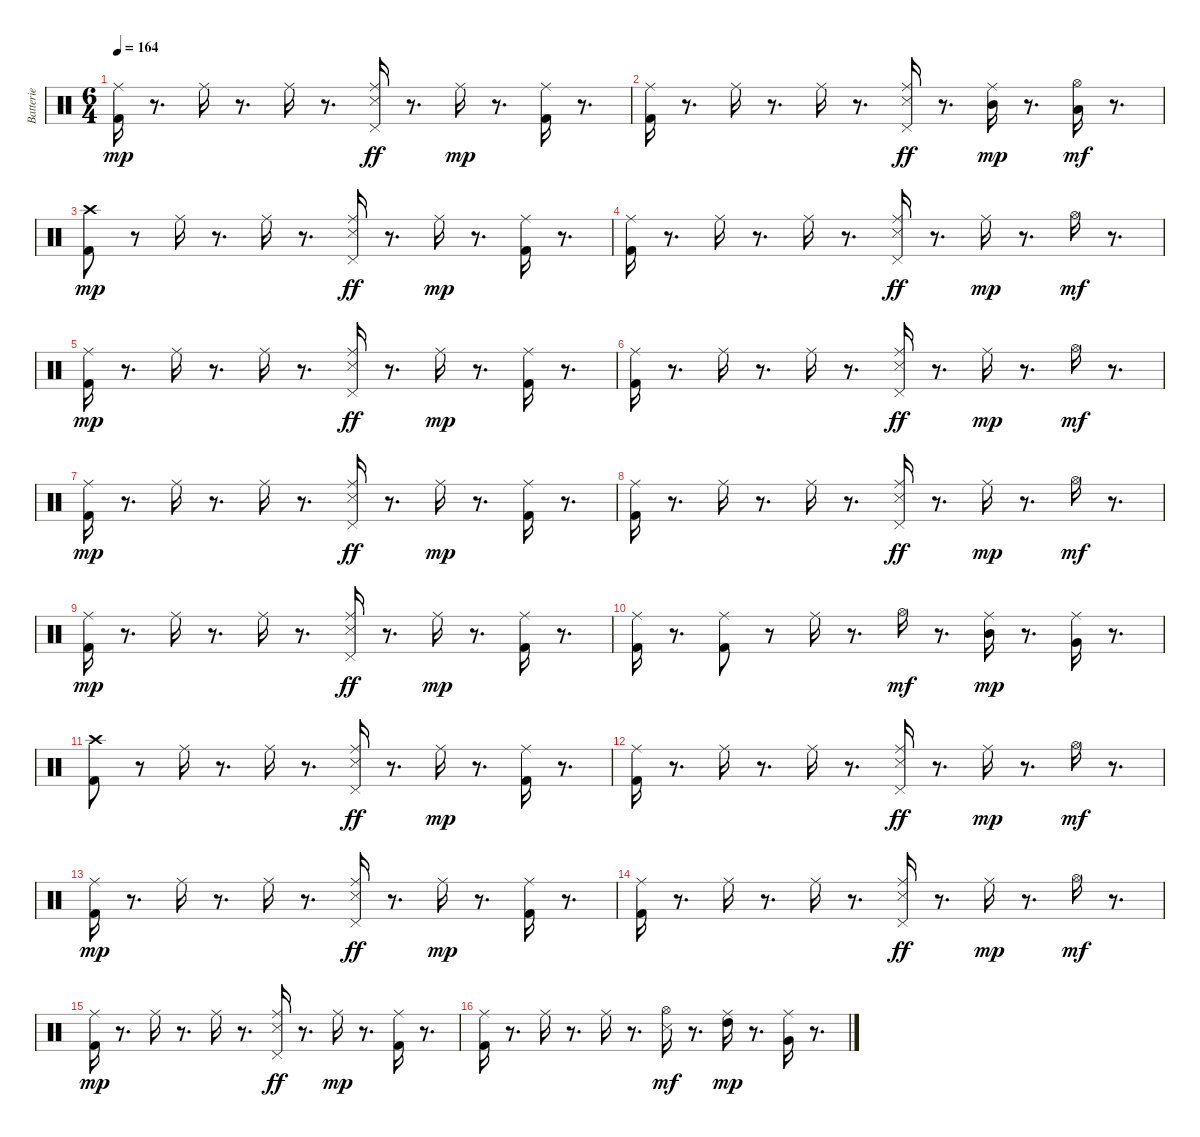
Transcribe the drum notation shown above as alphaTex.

\track ("Batterie" "Batterie") {instrument percussion}
\staff {score}
\articulation defaults
\ts (6 4)
\tempo 164
\clef neutral
\ks c
("Kick (hit) 2" "Ride (middle)").16{dy mp} r.8{d} "Ride (middle)".16 r.8{d} "Ride (middle)".16 r.8{d} ("Snare (side stick) 3" "Ride (middle)" "Pedal Hi-Hat (hit)").16{dy ff} r.8{d} "Ride (middle)".16{dy mp} r.8{d} ("Kick (hit) 2" "Ride (middle)").16 r.8{d} |
("Kick (hit) 2" "Ride (middle)").16 r.8{d} "Ride (middle)".16 r.8{d} "Ride (middle)".16 r.8{d} ("Snare (side stick) 3" "Ride (middle)" "Pedal Hi-Hat (hit)").16{dy ff} r.8{d} ("Ride (middle)" "Mid Tom (hit)").16{dy mp} r.8{d} ("Hi-Hat (open)" "Low Floor Tom (hit)").16{dy mf} r.8{d} |
("Kick (hit) 2" "Crash high (hit)").8{dy mp} r.8 "Ride (middle)".16 r.8{d} "Ride (middle)".16 r.8{d} ("Snare (side stick) 3" "Ride (middle)" "Pedal Hi-Hat (hit)").16{dy ff} r.8{d} "Ride (middle)".16{dy mp} r.8{d} ("Kick (hit) 2" "Ride (middle)").16 r.8{d} |
("Kick (hit) 2" "Ride (middle)").16 r.8{d} "Ride (middle)".16 r.8{d} "Ride (middle)".16 r.8{d} ("Snare (side stick) 3" "Ride (middle)" "Pedal Hi-Hat (hit)").16{dy ff} r.8{d} "Ride (middle)".16{dy mp} r.8{d} "Hi-Hat (open)".16{dy mf} r.8{d} |
("Kick (hit) 2" "Ride (middle)").16{dy mp} r.8{d} "Ride (middle)".16 r.8{d} "Ride (middle)".16 r.8{d} ("Snare (side stick) 3" "Ride (middle)" "Pedal Hi-Hat (hit)").16{dy ff} r.8{d} "Ride (middle)".16{dy mp} r.8{d} ("Kick (hit) 2" "Ride (middle)").16 r.8{d} |
("Kick (hit) 2" "Ride (middle)").16 r.8{d} "Ride (middle)".16 r.8{d} "Ride (middle)".16 r.8{d} ("Snare (side stick) 3" "Ride (middle)" "Pedal Hi-Hat (hit)").16{dy ff} r.8{d} "Ride (middle)".16{dy mp} r.8{d} "Hi-Hat (open)".16{dy mf} r.8{d} |
("Kick (hit) 2" "Ride (middle)").16{dy mp} r.8{d} "Ride (middle)".16 r.8{d} "Ride (middle)".16 r.8{d} ("Snare (side stick) 3" "Ride (middle)" "Pedal Hi-Hat (hit)").16{dy ff} r.8{d} "Ride (middle)".16{dy mp} r.8{d} ("Kick (hit) 2" "Ride (middle)").16 r.8{d} |
("Kick (hit) 2" "Ride (middle)").16 r.8{d} "Ride (middle)".16 r.8{d} "Ride (middle)".16 r.8{d} ("Snare (side stick) 3" "Ride (middle)" "Pedal Hi-Hat (hit)").16{dy ff} r.8{d} "Ride (middle)".16{dy mp} r.8{d} "Hi-Hat (open)".16{dy mf} r.8{d} |
("Kick (hit) 2" "Ride (middle)").16{dy mp} r.8{d} "Ride (middle)".16 r.8{d} "Ride (middle)".16 r.8{d} ("Snare (side stick) 3" "Ride (middle)" "Pedal Hi-Hat (hit)").16{dy ff} r.8{d} "Ride (middle)".16{dy mp} r.8{d} ("Kick (hit) 2" "Ride (middle)").16 r.8{d} |
("Kick (hit) 2" "Ride (middle)").16 r.8{d} ("Kick (hit) 2" "Ride (middle)").8 r.8 "Ride (middle)".16 r.8{d} "Hi-Hat (open)".16{dy mf} r.8{d} ("Ride (middle)" "Mid Tom (hit)").16{dy mp} r.8{d} ("Ride (middle)" "Very Low Tom (hit)").16 r.8{d} |
("Kick (hit) 2" "Crash high (hit)").8 r.8 "Ride (middle)".16 r.8{d} "Ride (middle)".16 r.8{d} ("Snare (side stick) 3" "Ride (middle)" "Pedal Hi-Hat (hit)").16{dy ff} r.8{d} "Ride (middle)".16{dy mp} r.8{d} ("Kick (hit) 2" "Ride (middle)").16 r.8{d} |
("Kick (hit) 2" "Ride (middle)").16 r.8{d} "Ride (middle)".16 r.8{d} "Ride (middle)".16 r.8{d} ("Snare (side stick) 3" "Ride (middle)" "Pedal Hi-Hat (hit)").16{dy ff} r.8{d} "Ride (middle)".16{dy mp} r.8{d} "Hi-Hat (open)".16{dy mf} r.8{d} |
("Kick (hit) 2" "Ride (middle)").16{dy mp} r.8{d} "Ride (middle)".16 r.8{d} "Ride (middle)".16 r.8{d} ("Snare (side stick) 3" "Ride (middle)" "Pedal Hi-Hat (hit)").16{dy ff} r.8{d} "Ride (middle)".16{dy mp} r.8{d} ("Kick (hit) 2" "Ride (middle)").16 r.8{d} |
("Kick (hit) 2" "Ride (middle)").16 r.8{d} "Ride (middle)".16 r.8{d} "Ride (middle)".16 r.8{d} ("Snare (side stick) 3" "Ride (middle)" "Pedal Hi-Hat (hit)").16{dy ff} r.8{d} "Ride (middle)".16{dy mp} r.8{d} "Hi-Hat (open)".16{dy mf} r.8{d} |
("Kick (hit) 2" "Ride (middle)").16{dy mp} r.8{d} "Ride (middle)".16 r.8{d} "Ride (middle)".16 r.8{d} ("Snare (side stick) 3" "Ride (middle)" "Pedal Hi-Hat (hit)").16{dy ff} r.8{d} "Ride (middle)".16{dy mp} r.8{d} ("Kick (hit) 2" "Ride (middle)").16 r.8{d} |
("Kick (hit) 2" "Ride (middle)").16 r.8{d} "Ride (middle)".16 r.8{d} "Ride (middle)".16 r.8{d} ("Snare (side stick) 3" "Hi-Hat (open)").16{dy mf} r.8{d} ("Ride (middle)" "High Tom (hit)").16{dy mp} r.8{d} ("Ride (middle)" "Very Low Tom (hit)").16 r.8{d}
